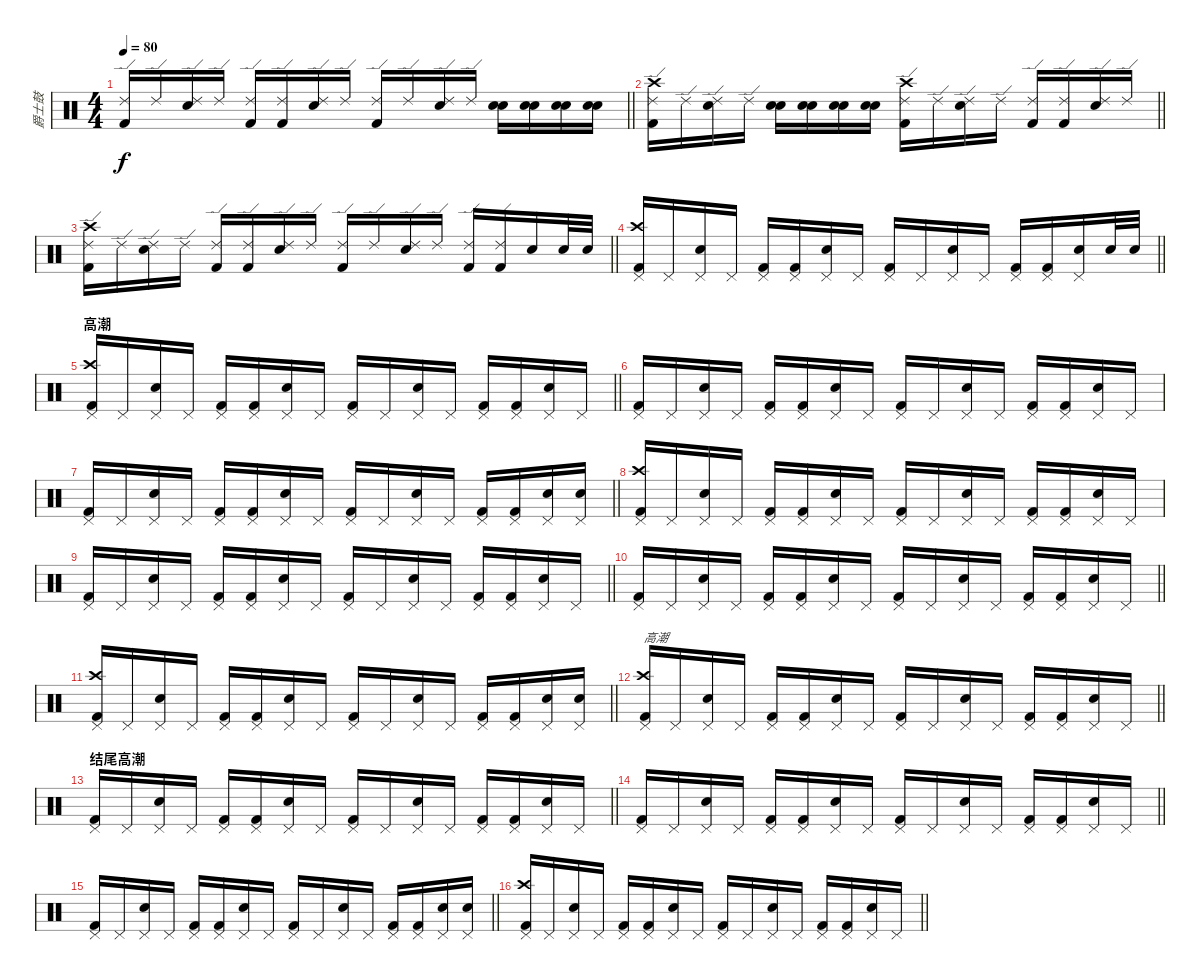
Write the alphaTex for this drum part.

\track ("爵士鼓" "爵士鼓") {instrument percussion}
\staff {score}
\articulation defaults
\ts (4 4)
\tempo 80
\clef neutral
\barLineRight lightlight
\ks c
("Ride (edge) 2" "Kick (hit) 2").16{dy f} "Ride (edge) 2".16 ("Ride (edge) 2" "Snare (hit) 2").16 "Ride (edge) 2".16 ("Ride (edge) 2" "Kick (hit) 2").16 ("Ride (edge) 2" "Kick (hit) 2").16 ("Ride (edge) 2" "Snare (hit) 2").16 "Ride (edge) 2".16 ("Ride (edge) 2" "Kick (hit) 2").16 "Ride (edge) 2".16 ("Ride (edge) 2" "Snare (hit) 2").16 "Ride (edge) 2".16 ("Snare (hit) 2" "Snare (hit) 2").16 ("Snare (hit) 2" "Snare (hit) 2").16 ("Snare (hit) 2" "Snare (hit) 2").16 ("Snare (hit) 2" "Snare (hit) 2").16 |
\barLineRight lightlight
("Ride (edge) 2" "Kick (hit) 2" "Crash high (hit)").16 "Ride (edge) 2".16 ("Ride (edge) 2" "Snare (hit) 2").16 "Ride (edge) 2".16 ("Snare (hit) 2" "Snare (hit) 2").16 ("Snare (hit) 2" "Snare (hit) 2").16 ("Snare (hit) 2" "Snare (hit) 2").16 ("Snare (hit) 2" "Snare (hit) 2").16 ("Ride (edge) 2" "Kick (hit) 2" "Crash high (hit)").16 "Ride (edge) 2".16 ("Ride (edge) 2" "Snare (hit) 2").16 "Ride (edge) 2".16 ("Ride (edge) 2" "Kick (hit) 2").16 ("Ride (edge) 2" "Kick (hit) 2").16 ("Ride (edge) 2" "Snare (hit) 2").16 "Ride (edge) 2".16 |
\barLineRight lightlight
("Ride (edge) 2" "Kick (hit) 2" "Crash high (hit)").16 "Ride (edge) 2".16 ("Ride (edge) 2" "Snare (hit) 2").16 "Ride (edge) 2".16 ("Ride (edge) 2" "Kick (hit) 2").16 ("Ride (edge) 2" "Kick (hit) 2").16 ("Ride (edge) 2" "Snare (hit) 2").16 "Ride (edge) 2".16 ("Ride (edge) 2" "Kick (hit) 2").16 "Ride (edge) 2".16 ("Ride (edge) 2" "Snare (hit) 2").16 "Ride (edge) 2".16 ("Ride (edge) 2" "Kick (hit) 2").16 ("Ride (edge) 2" "Kick (hit) 2").16 "Snare (hit) 2".16 "Snare (hit) 2".32 "Snare (hit) 2".32 |
\barLineRight lightlight
("Pedal Hi-Hat (hit)" "Kick (hit) 2" "Crash high (hit)").16 "Pedal Hi-Hat (hit)".16 ("Pedal Hi-Hat (hit)" "Snare (hit) 2").16 "Pedal Hi-Hat (hit)".16 ("Pedal Hi-Hat (hit)" "Kick (hit) 2").16 ("Pedal Hi-Hat (hit)" "Kick (hit) 2").16 ("Pedal Hi-Hat (hit)" "Snare (hit) 2").16 "Pedal Hi-Hat (hit)".16 ("Pedal Hi-Hat (hit)" "Kick (hit) 2").16 "Pedal Hi-Hat (hit)".16 ("Pedal Hi-Hat (hit)" "Snare (hit) 2").16 "Pedal Hi-Hat (hit)".16 ("Pedal Hi-Hat (hit)" "Kick (hit) 2").16 ("Pedal Hi-Hat (hit)" "Kick (hit) 2").16 ("Pedal Hi-Hat (hit)" "Snare (hit) 2").16 "Snare (hit) 2".32 "Snare (hit) 2".32 |
\section ("" "高潮")
\barLineRight lightlight
("Pedal Hi-Hat (hit)" "Kick (hit) 2" "Crash high (hit)").16 "Pedal Hi-Hat (hit)".16 ("Pedal Hi-Hat (hit)" "Snare (hit) 2").16 "Pedal Hi-Hat (hit)".16 ("Pedal Hi-Hat (hit)" "Kick (hit) 2").16 ("Pedal Hi-Hat (hit)" "Kick (hit) 2").16 ("Pedal Hi-Hat (hit)" "Snare (hit) 2").16 "Pedal Hi-Hat (hit)".16 ("Pedal Hi-Hat (hit)" "Kick (hit) 2").16 "Pedal Hi-Hat (hit)".16 ("Pedal Hi-Hat (hit)" "Snare (hit) 2").16 "Pedal Hi-Hat (hit)".16 ("Pedal Hi-Hat (hit)" "Kick (hit) 2").16 ("Pedal Hi-Hat (hit)" "Kick (hit) 2").16 ("Pedal Hi-Hat (hit)" "Snare (hit) 2").16 "Pedal Hi-Hat (hit)".16 |
("Pedal Hi-Hat (hit)" "Kick (hit) 2").16 "Pedal Hi-Hat (hit)".16 ("Pedal Hi-Hat (hit)" "Snare (hit) 2").16 "Pedal Hi-Hat (hit)".16 ("Pedal Hi-Hat (hit)" "Kick (hit) 2").16 ("Pedal Hi-Hat (hit)" "Kick (hit) 2").16 ("Pedal Hi-Hat (hit)" "Snare (hit) 2").16 "Pedal Hi-Hat (hit)".16 ("Pedal Hi-Hat (hit)" "Kick (hit) 2").16 "Pedal Hi-Hat (hit)".16 ("Pedal Hi-Hat (hit)" "Snare (hit) 2").16 "Pedal Hi-Hat (hit)".16 ("Pedal Hi-Hat (hit)" "Kick (hit) 2").16 ("Pedal Hi-Hat (hit)" "Kick (hit) 2").16 ("Pedal Hi-Hat (hit)" "Snare (hit) 2").16 "Pedal Hi-Hat (hit)".16 |
\barLineRight lightlight
("Pedal Hi-Hat (hit)" "Kick (hit) 2").16 "Pedal Hi-Hat (hit)".16 ("Pedal Hi-Hat (hit)" "Snare (hit) 2").16 "Pedal Hi-Hat (hit)".16 ("Pedal Hi-Hat (hit)" "Kick (hit) 2").16 ("Pedal Hi-Hat (hit)" "Kick (hit) 2").16 ("Pedal Hi-Hat (hit)" "Snare (hit) 2").16 "Pedal Hi-Hat (hit)".16 ("Pedal Hi-Hat (hit)" "Kick (hit) 2").16 "Pedal Hi-Hat (hit)".16 ("Pedal Hi-Hat (hit)" "Snare (hit) 2").16 "Pedal Hi-Hat (hit)".16 ("Pedal Hi-Hat (hit)" "Kick (hit) 2").16 ("Pedal Hi-Hat (hit)" "Kick (hit) 2").16 ("Pedal Hi-Hat (hit)" "Snare (hit) 2").16 ("Pedal Hi-Hat (hit)" "Snare (hit) 2").16 |
("Pedal Hi-Hat (hit)" "Kick (hit) 2" "Crash high (hit)").16 "Pedal Hi-Hat (hit)".16 ("Pedal Hi-Hat (hit)" "Snare (hit) 2").16 "Pedal Hi-Hat (hit)".16 ("Pedal Hi-Hat (hit)" "Kick (hit) 2").16 ("Pedal Hi-Hat (hit)" "Kick (hit) 2").16 ("Pedal Hi-Hat (hit)" "Snare (hit) 2").16 "Pedal Hi-Hat (hit)".16 ("Pedal Hi-Hat (hit)" "Kick (hit) 2").16 "Pedal Hi-Hat (hit)".16 ("Pedal Hi-Hat (hit)" "Snare (hit) 2").16 "Pedal Hi-Hat (hit)".16 ("Pedal Hi-Hat (hit)" "Kick (hit) 2").16 ("Pedal Hi-Hat (hit)" "Kick (hit) 2").16 ("Pedal Hi-Hat (hit)" "Snare (hit) 2").16 "Pedal Hi-Hat (hit)".16 |
\barLineRight lightlight
("Pedal Hi-Hat (hit)" "Kick (hit) 2").16 "Pedal Hi-Hat (hit)".16 ("Pedal Hi-Hat (hit)" "Snare (hit) 2").16 "Pedal Hi-Hat (hit)".16 ("Pedal Hi-Hat (hit)" "Kick (hit) 2").16 ("Pedal Hi-Hat (hit)" "Kick (hit) 2").16 ("Pedal Hi-Hat (hit)" "Snare (hit) 2").16 "Pedal Hi-Hat (hit)".16 ("Pedal Hi-Hat (hit)" "Kick (hit) 2").16 "Pedal Hi-Hat (hit)".16 ("Pedal Hi-Hat (hit)" "Snare (hit) 2").16 "Pedal Hi-Hat (hit)".16 ("Pedal Hi-Hat (hit)" "Kick (hit) 2").16 ("Pedal Hi-Hat (hit)" "Kick (hit) 2").16 ("Pedal Hi-Hat (hit)" "Snare (hit) 2").16 "Pedal Hi-Hat (hit)".16 |
\barLineRight lightlight
("Pedal Hi-Hat (hit)" "Kick (hit) 2").16 "Pedal Hi-Hat (hit)".16 ("Pedal Hi-Hat (hit)" "Snare (hit) 2").16 "Pedal Hi-Hat (hit)".16 ("Pedal Hi-Hat (hit)" "Kick (hit) 2").16 ("Pedal Hi-Hat (hit)" "Kick (hit) 2").16 ("Pedal Hi-Hat (hit)" "Snare (hit) 2").16 "Pedal Hi-Hat (hit)".16 ("Pedal Hi-Hat (hit)" "Kick (hit) 2").16 "Pedal Hi-Hat (hit)".16 ("Pedal Hi-Hat (hit)" "Snare (hit) 2").16 "Pedal Hi-Hat (hit)".16 ("Pedal Hi-Hat (hit)" "Kick (hit) 2").16 ("Pedal Hi-Hat (hit)" "Kick (hit) 2").16 ("Pedal Hi-Hat (hit)" "Snare (hit) 2").16 "Pedal Hi-Hat (hit)".16 |
\barLineRight lightlight
("Pedal Hi-Hat (hit)" "Kick (hit) 2" "Crash high (hit)").16 "Pedal Hi-Hat (hit)".16 ("Pedal Hi-Hat (hit)" "Snare (hit) 2").16 "Pedal Hi-Hat (hit)".16 ("Pedal Hi-Hat (hit)" "Kick (hit) 2").16 ("Pedal Hi-Hat (hit)" "Kick (hit) 2").16 ("Pedal Hi-Hat (hit)" "Snare (hit) 2").16 "Pedal Hi-Hat (hit)".16 ("Pedal Hi-Hat (hit)" "Kick (hit) 2").16 "Pedal Hi-Hat (hit)".16 ("Pedal Hi-Hat (hit)" "Snare (hit) 2").16 "Pedal Hi-Hat (hit)".16 ("Pedal Hi-Hat (hit)" "Kick (hit) 2").16 ("Pedal Hi-Hat (hit)" "Kick (hit) 2").16 ("Pedal Hi-Hat (hit)" "Snare (hit) 2").16 ("Pedal Hi-Hat (hit)" "Snare (hit) 2").16 |
\barLineRight lightlight
("Pedal Hi-Hat (hit)" "Kick (hit) 2" "Crash high (hit)").16{txt "高潮"} "Pedal Hi-Hat (hit)".16 ("Pedal Hi-Hat (hit)" "Snare (hit) 2").16 "Pedal Hi-Hat (hit)".16 ("Pedal Hi-Hat (hit)" "Kick (hit) 2").16 ("Pedal Hi-Hat (hit)" "Kick (hit) 2").16 ("Pedal Hi-Hat (hit)" "Snare (hit) 2").16 "Pedal Hi-Hat (hit)".16 ("Pedal Hi-Hat (hit)" "Kick (hit) 2").16 "Pedal Hi-Hat (hit)".16 ("Pedal Hi-Hat (hit)" "Snare (hit) 2").16 "Pedal Hi-Hat (hit)".16 ("Pedal Hi-Hat (hit)" "Kick (hit) 2").16 ("Pedal Hi-Hat (hit)" "Kick (hit) 2").16 ("Pedal Hi-Hat (hit)" "Snare (hit) 2").16 "Pedal Hi-Hat (hit)".16 |
\section ("" "结尾高潮")
\barLineRight lightlight
("Pedal Hi-Hat (hit)" "Kick (hit) 2").16 "Pedal Hi-Hat (hit)".16 ("Pedal Hi-Hat (hit)" "Snare (hit) 2").16 "Pedal Hi-Hat (hit)".16 ("Pedal Hi-Hat (hit)" "Kick (hit) 2").16 ("Pedal Hi-Hat (hit)" "Kick (hit) 2").16 ("Pedal Hi-Hat (hit)" "Snare (hit) 2").16 "Pedal Hi-Hat (hit)".16 ("Pedal Hi-Hat (hit)" "Kick (hit) 2").16 "Pedal Hi-Hat (hit)".16 ("Pedal Hi-Hat (hit)" "Snare (hit) 2").16 "Pedal Hi-Hat (hit)".16 ("Pedal Hi-Hat (hit)" "Kick (hit) 2").16 ("Pedal Hi-Hat (hit)" "Kick (hit) 2").16 ("Pedal Hi-Hat (hit)" "Snare (hit) 2").16 "Pedal Hi-Hat (hit)".16 |
\barLineRight lightlight
("Pedal Hi-Hat (hit)" "Kick (hit) 2").16 "Pedal Hi-Hat (hit)".16 ("Pedal Hi-Hat (hit)" "Snare (hit) 2").16 "Pedal Hi-Hat (hit)".16 ("Pedal Hi-Hat (hit)" "Kick (hit) 2").16 ("Pedal Hi-Hat (hit)" "Kick (hit) 2").16 ("Pedal Hi-Hat (hit)" "Snare (hit) 2").16 "Pedal Hi-Hat (hit)".16 ("Pedal Hi-Hat (hit)" "Kick (hit) 2").16 "Pedal Hi-Hat (hit)".16 ("Pedal Hi-Hat (hit)" "Snare (hit) 2").16 "Pedal Hi-Hat (hit)".16 ("Pedal Hi-Hat (hit)" "Kick (hit) 2").16 ("Pedal Hi-Hat (hit)" "Kick (hit) 2").16 ("Pedal Hi-Hat (hit)" "Snare (hit) 2").16 "Pedal Hi-Hat (hit)".16 |
\barLineRight lightlight
("Pedal Hi-Hat (hit)" "Kick (hit) 2").16 "Pedal Hi-Hat (hit)".16 ("Pedal Hi-Hat (hit)" "Snare (hit) 2").16 "Pedal Hi-Hat (hit)".16 ("Pedal Hi-Hat (hit)" "Kick (hit) 2").16 ("Pedal Hi-Hat (hit)" "Kick (hit) 2").16 ("Pedal Hi-Hat (hit)" "Snare (hit) 2").16 "Pedal Hi-Hat (hit)".16 ("Pedal Hi-Hat (hit)" "Kick (hit) 2").16 "Pedal Hi-Hat (hit)".16 ("Pedal Hi-Hat (hit)" "Snare (hit) 2").16 "Pedal Hi-Hat (hit)".16 ("Pedal Hi-Hat (hit)" "Kick (hit) 2").16 ("Pedal Hi-Hat (hit)" "Kick (hit) 2").16 ("Pedal Hi-Hat (hit)" "Snare (hit) 2").16 ("Pedal Hi-Hat (hit)" "Snare (hit) 2").16 |
\barLineRight lightlight
("Pedal Hi-Hat (hit)" "Kick (hit) 2" "Crash high (hit)").16 "Pedal Hi-Hat (hit)".16 ("Pedal Hi-Hat (hit)" "Snare (hit) 2").16 "Pedal Hi-Hat (hit)".16 ("Pedal Hi-Hat (hit)" "Kick (hit) 2").16 ("Pedal Hi-Hat (hit)" "Kick (hit) 2").16 ("Pedal Hi-Hat (hit)" "Snare (hit) 2").16 "Pedal Hi-Hat (hit)".16 ("Pedal Hi-Hat (hit)" "Kick (hit) 2").16 "Pedal Hi-Hat (hit)".16 ("Pedal Hi-Hat (hit)" "Snare (hit) 2").16 "Pedal Hi-Hat (hit)".16 ("Pedal Hi-Hat (hit)" "Kick (hit) 2").16 ("Pedal Hi-Hat (hit)" "Kick (hit) 2").16 ("Pedal Hi-Hat (hit)" "Snare (hit) 2").16 "Pedal Hi-Hat (hit)".16
